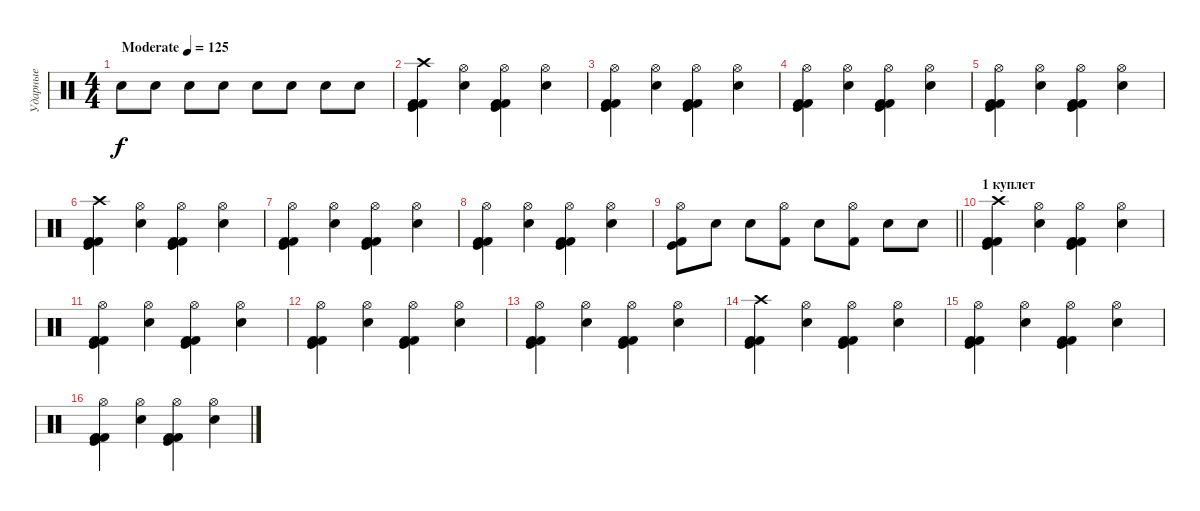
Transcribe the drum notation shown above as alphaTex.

\track ("Ударные" "Ударные") {instrument percussion}
\staff {score}
\articulation defaults
\ts (4 4)
\tempo (125 "Moderate")
\clef neutral
\ks c "Electric Snare (hit)".8{dy f} "Electric Snare (hit)".8 "Electric Snare (hit)".8 "Electric Snare (hit)".8 "Electric Snare (hit)".8 "Electric Snare (hit)".8 "Electric Snare (hit)".8 "Electric Snare (hit)".8
|
("Crash high (hit)" "Kick (hit)" "Kick (hit) 2" "Kick (hit) 2").4 ("Hi-Hat (open)" "Electric Snare (hit)").4 ("Hi-Hat (open)" "Kick (hit)" "Kick (hit) 2" "Kick (hit) 2").4 ("Hi-Hat (open)" "Electric Snare (hit)").4 |
("Hi-Hat (open)" "Kick (hit) 2" "Kick (hit) 2" "Kick (hit)").4 ("Hi-Hat (open)" "Electric Snare (hit)").4 ("Hi-Hat (open)" "Kick (hit) 2" "Kick (hit) 2" "Kick (hit)").4 ("Hi-Hat (open)" "Electric Snare (hit)").4 |
("Hi-Hat (open)" "Kick (hit) 2" "Kick (hit) 2" "Kick (hit)").4 ("Hi-Hat (open)" "Electric Snare (hit)").4 ("Hi-Hat (open)" "Kick (hit) 2" "Kick (hit) 2" "Kick (hit)").4 ("Hi-Hat (open)" "Electric Snare (hit)").4 |
("Hi-Hat (open)" "Kick (hit) 2" "Kick (hit) 2" "Kick (hit)").4 ("Hi-Hat (open)" "Electric Snare (hit)").4 ("Hi-Hat (open)" "Kick (hit) 2" "Kick (hit) 2" "Kick (hit)").4 ("Hi-Hat (open)" "Electric Snare (hit)").4 |
("Crash high (hit)" "Kick (hit)" "Kick (hit) 2" "Kick (hit) 2").4 ("Hi-Hat (open)" "Electric Snare (hit)").4 ("Hi-Hat (open)" "Kick (hit)" "Kick (hit) 2" "Kick (hit) 2").4 ("Hi-Hat (open)" "Electric Snare (hit)").4 |
("Hi-Hat (open)" "Kick (hit) 2" "Kick (hit) 2" "Kick (hit)").4 ("Hi-Hat (open)" "Electric Snare (hit)").4 ("Hi-Hat (open)" "Kick (hit) 2" "Kick (hit) 2" "Kick (hit)").4 ("Hi-Hat (open)" "Electric Snare (hit)").4 |
("Hi-Hat (open)" "Kick (hit) 2" "Kick (hit) 2" "Kick (hit)").4 ("Hi-Hat (open)" "Electric Snare (hit)").4 ("Hi-Hat (open)" "Kick (hit) 2" "Kick (hit) 2" "Kick (hit)").4 ("Hi-Hat (open)" "Electric Snare (hit)").4 |
\barLineRight lightlight
("Hi-Hat (open)" "Kick (hit) 2" "Kick (hit)").8 "Electric Snare (hit)".8 "Electric Snare (hit)".8 ("Hi-Hat (open)" "Kick (hit) 2").8 "Electric Snare (hit)".8 ("Hi-Hat (open)" "Kick (hit) 2").8 "Electric Snare (hit)".8 "Electric Snare (hit)".8 |
\section ("" "1 куплет")
("Crash high (hit)" "Kick (hit)" "Kick (hit) 2" "Kick (hit) 2").4 ("Hi-Hat (open)" "Electric Snare (hit)").4 ("Hi-Hat (open)" "Kick (hit)" "Kick (hit) 2" "Kick (hit) 2").4 ("Hi-Hat (open)" "Electric Snare (hit)").4 |
("Hi-Hat (open)" "Kick (hit) 2" "Kick (hit) 2" "Kick (hit)").4 ("Hi-Hat (open)" "Electric Snare (hit)").4 ("Hi-Hat (open)" "Kick (hit) 2" "Kick (hit) 2" "Kick (hit)").4 ("Hi-Hat (open)" "Electric Snare (hit)").4 |
("Hi-Hat (open)" "Kick (hit) 2" "Kick (hit) 2" "Kick (hit)").4 ("Hi-Hat (open)" "Electric Snare (hit)").4 ("Hi-Hat (open)" "Kick (hit) 2" "Kick (hit) 2" "Kick (hit)").4 ("Hi-Hat (open)" "Electric Snare (hit)").4 |
("Hi-Hat (open)" "Kick (hit) 2" "Kick (hit) 2" "Kick (hit)").4 ("Hi-Hat (open)" "Electric Snare (hit)").4 ("Hi-Hat (open)" "Kick (hit) 2" "Kick (hit) 2" "Kick (hit)").4 ("Hi-Hat (open)" "Electric Snare (hit)").4 |
("Crash high (hit)" "Kick (hit)" "Kick (hit) 2" "Kick (hit) 2").4 ("Hi-Hat (open)" "Electric Snare (hit)").4 ("Hi-Hat (open)" "Kick (hit)" "Kick (hit) 2" "Kick (hit) 2").4 ("Hi-Hat (open)" "Electric Snare (hit)").4 |
("Hi-Hat (open)" "Kick (hit) 2" "Kick (hit) 2" "Kick (hit)").4 ("Hi-Hat (open)" "Electric Snare (hit)").4 ("Hi-Hat (open)" "Kick (hit) 2" "Kick (hit) 2" "Kick (hit)").4 ("Hi-Hat (open)" "Electric Snare (hit)").4 |
("Hi-Hat (open)" "Kick (hit) 2" "Kick (hit) 2" "Kick (hit)").4 ("Hi-Hat (open)" "Electric Snare (hit)").4 ("Hi-Hat (open)" "Kick (hit) 2" "Kick (hit) 2" "Kick (hit)").4 ("Hi-Hat (open)" "Electric Snare (hit)").4
